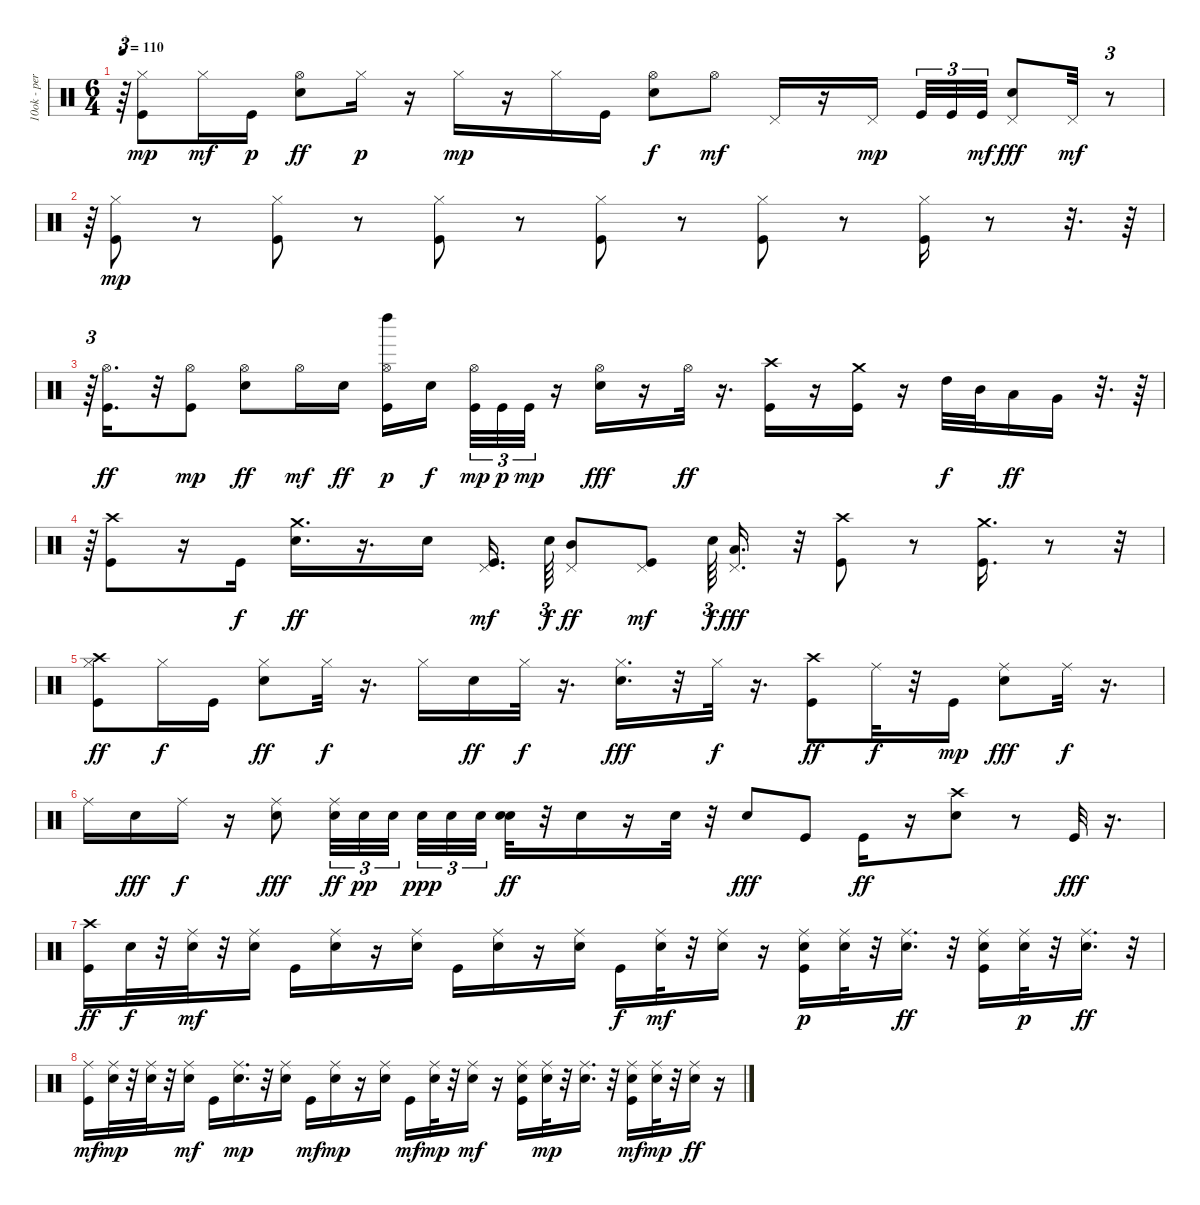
\track ("10ok - percussioni" "10ok - per") {instrument percussion}
\staff {score}
\articulation defaults
\ts (6 4)
\tempo 110
\clef neutral
\ks c
r.64{tu (3 2) dy f} ("Hi-Hat (closed)" "Kick (hit)").8{dy mp} "Hi-Hat (closed)".16{dy mf} "Kick (hit)".16{dy p} ("Hi-Hat (open)" "Snare (hit) 2").8{dy ff} "Hi-Hat (closed)".16{dy p} r.16 "Hi-Hat (closed)".16{dy mp} r.16 "Hi-Hat (closed)".16 "Kick (hit)".16 ("Hi-Hat (open)" "Snare (hit) 2").8{dy f} "Hi-Hat (open)".8{dy mf} "Pedal Hi-Hat (hit)".16 r.16 "Pedal Hi-Hat (hit)".16{dy mp beam splitsecondary} "Kick (hit)".32{tu (3 2)} "Kick (hit)".32{tu (3 2)} "Kick (hit)".32{tu (3 2) dy mf} ("Pedal Hi-Hat (hit)" "Snare (hit) 2").8{dy fff} "Pedal Hi-Hat (hit)".32{dy mf} r.8{tu (3 2)} |
r.64{tu (3 2)} ("Hi-Hat (closed)" "Kick (hit)").8{dy mp} r.8 ("Kick (hit)" "Hi-Hat (closed)").8 r.8 ("Kick (hit)" "Hi-Hat (closed)").8 r.8 ("Hi-Hat (closed)" "Kick (hit)").8 r.8 ("Kick (hit)" "Hi-Hat (closed)").8 r.8 ("Hi-Hat (closed)" "Kick (hit)").16 r.8 r.32{d} r.64 |
r.64{tu (3 2)} ("Kick (hit)" "Hi-Hat (open)").16{d dy ff} r.32 ("Hi-Hat (open)" "Kick (hit)").8{dy mp} ("Hi-Hat (open)" "Snare (hit) 2").8{dy ff} "Hi-Hat (open)".16{dy mf} "Snare (hit) 2".16{dy ff} ("Hi-Hat (open)" "Left Maraca (hit)" "Kick (hit)").16{dy p} "Snare (hit) 2".16{dy f beam splitsecondary} ("Hi-Hat (open)" "Kick (hit)").32{tu (3 2) dy mp} "Kick (hit)".32{tu (3 2) dy p} "Kick (hit)".32{tu (3 2) dy mp} r.16 ("Hi-Hat (open)" "Snare (hit) 2").16{dy fff} r.16 "Hi-Hat (open)".32{dy ff} r.16{d} ("Crash high (hit)" "Kick (hit)").16 r.16 ("Kick (hit)" "Crash medium (hit)").16 r.16 "High Tom (hit)".32{dy f} "Mid Tom (hit)".32 "Low Tom (hit)".16{dy ff} "Very Low Tom (hit)".16 r.32{d} r.64 |
r.64{tu (3 2)} ("Crash high (hit)" "Kick (hit)").8 r.16 "Kick (hit)".16{dy f} ("Crash medium (hit)" "Snare (hit) 2").16{d dy ff} r.16{d} "Snare (hit) 2".16 ("Pedal Hi-Hat (hit)" "Kick (hit)").16{d dy mf beam splitsecondary} "Snare (hit) 2".64{tu (3 2) dy f} ("Pedal Hi-Hat (hit)" "Mid Tom (hit)").8{dy ff} ("Pedal Hi-Hat (hit)" "Kick (hit)").8{dy mf} "Snare (hit) 2".64{tu (3 2) dy f} ("Pedal Hi-Hat (hit)" "Low Tom (hit)").16{d dy fff} r.32 ("Crash high (hit)" "Kick (hit)").8 r.8 ("Kick (hit)" "Crash medium (hit)").16{d} r.8 r.32 |
("Kick (hit)" "Crash high (hit)" "Hi-Hat (closed)").8{dy ff} "Hi-Hat (closed)".16{dy f} "Kick (hit)".16 ("Snare (hit) 2" "Hi-Hat (closed)").8{dy ff} "Hi-Hat (closed)".32{dy f} r.16{d} "Hi-Hat (closed)".16 "Snare (hit) 2".16{dy ff} "Hi-Hat (closed)".32{dy f} r.16{d} ("Snare (hit) 2" "Hi-Hat (closed)").16{d dy fff} r.32 "Hi-Hat (closed)".32{dy f} r.16{d} ("Kick (hit)" "Crash high (hit)").8{dy ff} "Ride (middle)".32{dy f} r.32 "Kick (hit)".16{dy mp} ("Ride (middle)" "Snare (hit) 2").8{dy fff} "Ride (middle)".32{dy f} r.16{d} |
"Ride (middle)".16 "Snare (hit) 2".16{dy fff} "Ride (middle)".16{dy f} r.16 ("Ride (middle)" "Snare (hit) 2").8{dy fff} ("Snare (hit) 2" "Ride (middle)").32{tu (3 2) dy ff} "Snare (hit) 2".32{tu (3 2) dy pp} "Snare (hit) 2".32{tu (3 2) beam splitsecondary} "Snare (hit) 2".32{tu (3 2) dy ppp} "Snare (hit) 2".32{tu (3 2)} "Snare (hit) 2".32{tu (3 2) beam splitsecondary} ("Snare (hit) 2" "Snare (hit) 2").32{dy ff} r.32 "Snare (hit) 2".16 r.16 "Snare (hit) 2".32 r.32 "Snare (hit) 2".8{dy fff} "Kick (hit)".8 "Kick (hit)".16{dy ff} r.16 ("Crash high (hit)" "Snare (hit) 2").8 r.8 "Kick (hit)".32{dy fff} r.16{d} |
("Crash high (hit)" "Kick (hit)").16{dy ff} "Snare (hit) 2".32{dy f} r.32 ("Ride (middle)" "Snare (hit) 2").32{dy mf} r.32 ("Ride (middle)" "Snare (hit) 2").16 "Kick (hit)".16 ("Ride (middle)" "Snare (hit) 2").16 r.16 ("Ride (middle)" "Snare (hit) 2").16 "Kick (hit)".16 ("Ride (middle)" "Snare (hit) 2").16 r.16 ("Ride (middle)" "Snare (hit) 2").16 "Kick (hit)".16{dy f} ("Ride (middle)" "Snare (hit) 2").32{dy mf} r.32 ("Ride (middle)" "Snare (hit) 2").16 r.16 ("Snare (hit) 2" "Ride (middle)" "Kick (hit)").16{dy p} ("Snare (hit) 2" "Ride (middle)").32 r.32 ("Ride (middle)" "Snare (hit) 2").16{d dy ff} r.32 ("Snare (hit) 2" "Ride (middle)" "Kick (hit)").16 ("Snare (hit) 2" "Ride (middle)").32{dy p} r.32 ("Ride (middle)" "Snare (hit) 2").16{d dy ff} r.32 |
("Ride (middle)" "Kick (hit)").16{dy mf} ("Snare (hit) 2" "Ride (middle)").32{dy mp} r.32 ("Snare (hit) 2" "Ride (middle)").32 r.32 ("Snare (hit) 2" "Ride (middle)").16{dy mf} "Kick (hit)".16 ("Snare (hit) 2" "Ride (middle)").16{d dy mp} r.32 ("Snare (hit) 2" "Ride (middle)").16 "Kick (hit)".16{dy mf} ("Snare (hit) 2" "Ride (middle)").16{dy mp} r.16 ("Snare (hit) 2" "Ride (middle)").16 "Kick (hit)".16{dy mf} ("Snare (hit) 2" "Ride (middle)").32{dy mp} r.32 ("Snare (hit) 2" "Ride (middle)").16{dy mf} r.16 ("Snare (hit) 2" "Ride (middle)" "Kick (hit)").16 ("Snare (hit) 2" "Ride (middle)").32{dy mp} r.32 ("Snare (hit) 2" "Ride (middle)").16{d} r.32 ("Snare (hit) 2" "Ride (middle)" "Kick (hit)").16{dy mf} ("Snare (hit) 2" "Ride (middle)").32{dy mp} r.32 ("Snare (hit) 2" "Ride (middle)").16{dy ff} r.16
